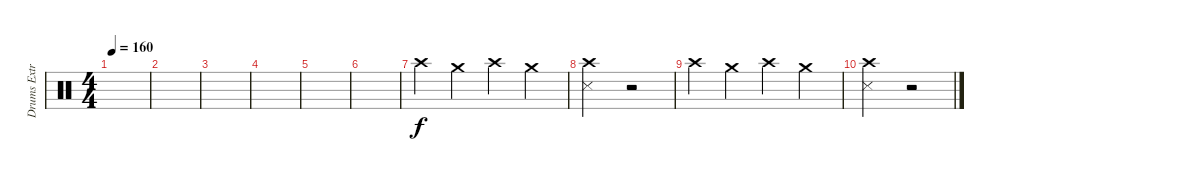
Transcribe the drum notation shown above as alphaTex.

\track ("Drums Extra" "Drums Extr") {instrument percussion}
\staff {score}
\articulation defaults
\ts (4 4)
\tempo 160
\clef neutral
\ks c
|
|
|
|
|
|
"Crash high (hit)".4 "Crash medium (hit)".4 "Crash high (hit)".4 "Crash medium (hit)".4 |
("Crash high (hit)" "Metronome (hit)").2 r.2 |
"Crash high (hit)".4 "Crash medium (hit)".4 "Crash high (hit)".4 "Crash medium (hit)".4 |
("Crash high (hit)" "Metronome (hit)").2 r.2
